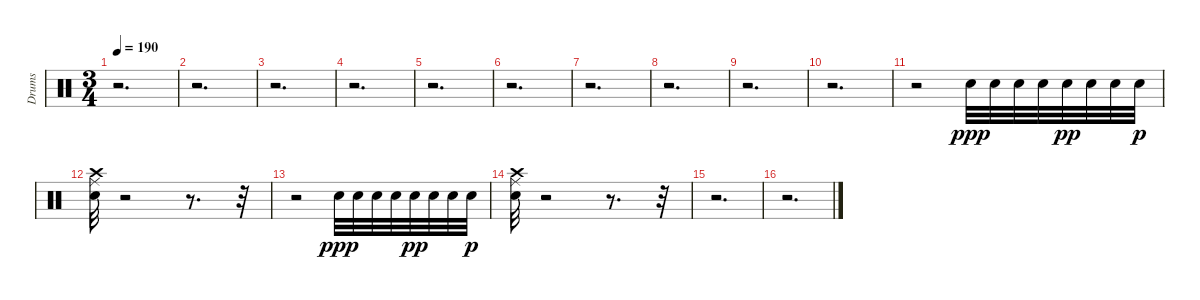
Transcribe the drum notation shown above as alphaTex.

\track ("Drums" "Drums") {instrument percussion}
\staff {score}
\articulation defaults
\ts (3 4)
\tempo 190
\clef neutral
\ks c
r.2{d dy p} |
r.2{d} |
r.2{d} |
r.2{d} |
r.2{d} |
r.2{d} |
r.2{d} |
r.2{d} |
r.2{d} |
r.2{d} |
r.2 "Electric Snare (hit)".32{dy ppp} "Electric Snare (hit)".32 "Electric Snare (hit)".32 "Electric Snare (hit)".32 "Electric Snare (hit)".32{dy pp} "Electric Snare (hit)".32 "Electric Snare (hit)".32 "Electric Snare (hit)".32{dy p} |
("Crash high (hit)" "Ride (middle)" "Electric Snare (hit)").32 r.2 r.8{d} r.32 |
r.2 "Electric Snare (hit)".32{dy ppp} "Electric Snare (hit)".32 "Electric Snare (hit)".32 "Electric Snare (hit)".32 "Electric Snare (hit)".32{dy pp} "Electric Snare (hit)".32 "Electric Snare (hit)".32 "Electric Snare (hit)".32{dy p} |
("Crash high (hit)" "Ride (middle)" "Electric Snare (hit)").32 r.2 r.8{d} r.32 |
r.2{d} |
r.2{d}
